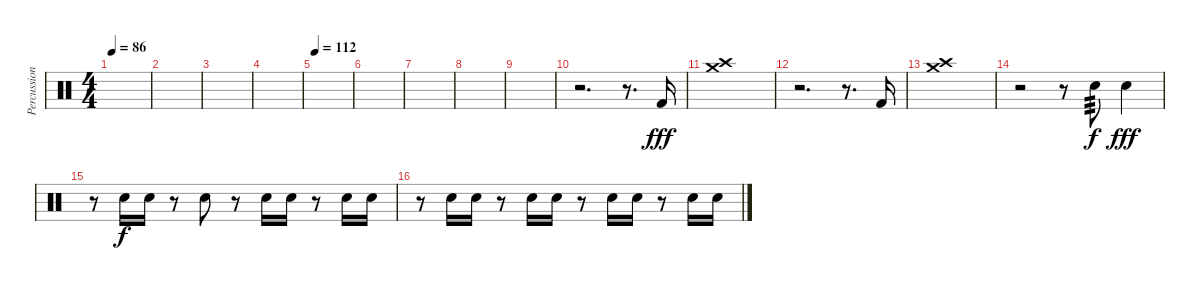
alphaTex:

\track ("Percussion" "Percussion") {instrument percussion}
\staff {score}
\articulation defaults
\ts (4 4)
\tempo 86
\clef neutral
\ks c
|
|
|
|
\tempo 112
|
|
|
|
|
r.2{d} r.8{d} "Kick (hit) 2".16{dy fff} |
("Crash medium (hit)" "Crash high (hit)").1 |
r.2{d} r.8{d} "Kick (hit) 2".16 |
("Crash medium (hit)" "Crash high (hit)").1 |
r.2 r.8 "Snare (hit) 2".8{tp 3 dy f} "Electric Snare (hit)".4{dy fff} |
r.8 "Electric Snare (hit)".16{dy f} "Electric Snare (hit)".16 r.8 "Electric Snare (hit)".8 r.8 "Electric Snare (hit)".16 "Electric Snare (hit)".16 r.8 "Electric Snare (hit)".16 "Electric Snare (hit)".16 |
r.8 "Electric Snare (hit)".16 "Electric Snare (hit)".16 r.8 "Electric Snare (hit)".16 "Electric Snare (hit)".16 r.8 "Electric Snare (hit)".16 "Electric Snare (hit)".16 r.8 "Electric Snare (hit)".16 "Electric Snare (hit)".16
